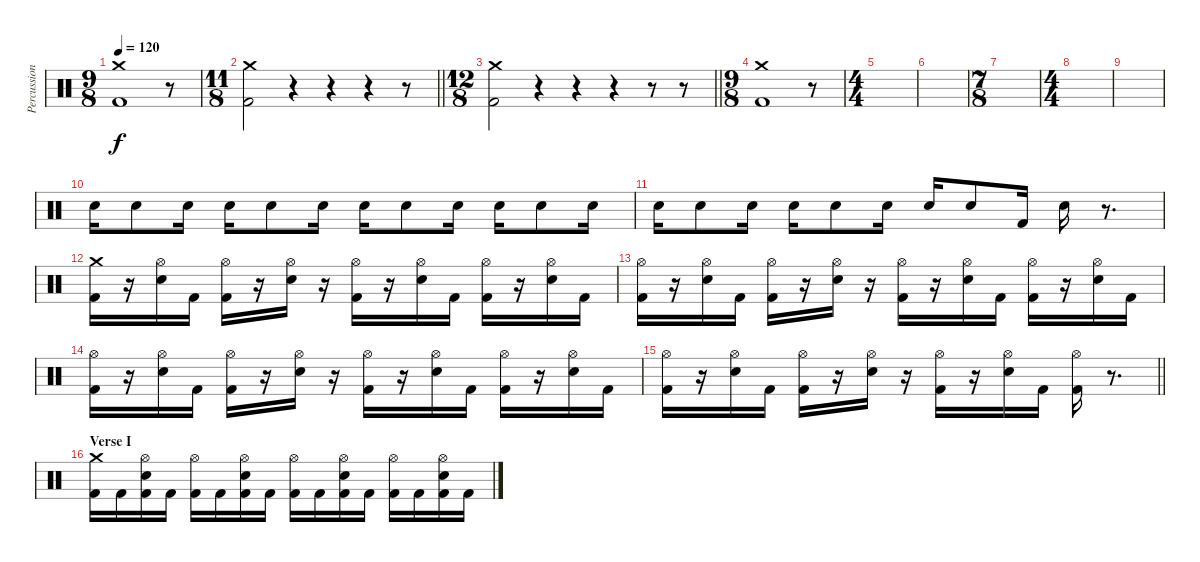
\track ("Percussion" "Percussion") {instrument percussion}
\staff {score}
\articulation defaults
\ts (9 8)
\tempo 120
\clef neutral
\ks c
("Crash medium (hit)" "Kick (hit) 2").1{dy f} r.8 |
\ts (11 8)
\barLineRight lightlight
("Crash medium (hit)" "Kick (hit) 2").2 r.4 r.4 r.4 r.8 |
\ts (12 8)
\barLineRight lightlight
("Crash medium (hit)" "Kick (hit) 2").2 r.4 r.4 r.4 r.8 r.8 |
\ts (9 8)
("Crash medium (hit)" "Kick (hit) 2").1 r.8 |
\ts (4 4)
|
|
\ts (7 8)
|
\ts (4 4)
|
|
"Electric Snare (hit)".16 "Electric Snare (hit)".8 "Electric Snare (hit)".16 "Electric Snare (hit)".16 "Electric Snare (hit)".8 "Electric Snare (hit)".16 "Electric Snare (hit)".16 "Electric Snare (hit)".8 "Electric Snare (hit)".16 "Electric Snare (hit)".16 "Electric Snare (hit)".8 "Electric Snare (hit)".16 |
"Electric Snare (hit)".16 "Electric Snare (hit)".8 "Electric Snare (hit)".16 "Electric Snare (hit)".16 "Electric Snare (hit)".8 "Electric Snare (hit)".16 "Electric Snare (hit)".16 "Electric Snare (hit)".8 "Kick (hit) 2".16 "Electric Snare (hit)".16 r.8{d} |
("Crash medium (hit)" "Kick (hit) 2").16 r.16 ("Hi-Hat (open)" "Electric Snare (hit)").16 "Kick (hit) 2".16 ("Hi-Hat (open)" "Kick (hit) 2").16 r.16 ("Hi-Hat (open)" "Electric Snare (hit)").16 r.16 ("Hi-Hat (open)" "Kick (hit) 2").16 r.16 ("Hi-Hat (open)" "Electric Snare (hit)").16 "Kick (hit) 2".16 ("Hi-Hat (open)" "Kick (hit) 2").16 r.16 ("Hi-Hat (open)" "Electric Snare (hit)").16 "Kick (hit) 2".16 |
("Hi-Hat (open)" "Kick (hit) 2").16 r.16 ("Hi-Hat (open)" "Electric Snare (hit)").16 "Kick (hit) 2".16 ("Hi-Hat (open)" "Kick (hit) 2").16 r.16 ("Hi-Hat (open)" "Electric Snare (hit)").16 r.16 ("Hi-Hat (open)" "Kick (hit) 2").16 r.16 ("Hi-Hat (open)" "Electric Snare (hit)").16 "Kick (hit) 2".16 ("Hi-Hat (open)" "Kick (hit) 2").16 r.16 ("Hi-Hat (open)" "Electric Snare (hit)").16 "Kick (hit) 2".16 |
("Hi-Hat (open)" "Kick (hit) 2").16 r.16 ("Hi-Hat (open)" "Electric Snare (hit)").16 "Kick (hit) 2".16 ("Hi-Hat (open)" "Kick (hit) 2").16 r.16 ("Hi-Hat (open)" "Electric Snare (hit)").16 r.16 ("Hi-Hat (open)" "Kick (hit) 2").16 r.16 ("Hi-Hat (open)" "Electric Snare (hit)").16 "Kick (hit) 2".16 ("Hi-Hat (open)" "Kick (hit) 2").16 r.16 ("Hi-Hat (open)" "Electric Snare (hit)").16 "Kick (hit) 2".16 |
\barLineRight lightlight
("Hi-Hat (open)" "Kick (hit) 2").16 r.16 ("Hi-Hat (open)" "Electric Snare (hit)").16 "Kick (hit) 2".16 ("Hi-Hat (open)" "Kick (hit) 2").16 r.16 ("Hi-Hat (open)" "Electric Snare (hit)").16 r.16 ("Hi-Hat (open)" "Kick (hit) 2").16 r.16 ("Hi-Hat (open)" "Electric Snare (hit)").16 "Kick (hit) 2".16 ("Hi-Hat (open)" "Kick (hit) 2").16 r.8{d} |
\section ("" "Verse I")
("Crash medium (hit)" "Kick (hit) 2").16 "Kick (hit) 2".16 ("Hi-Hat (open)" "Electric Snare (hit)" "Kick (hit) 2").16 "Kick (hit) 2".16 ("Hi-Hat (open)" "Kick (hit) 2").16 "Kick (hit) 2".16 ("Hi-Hat (open)" "Electric Snare (hit)" "Kick (hit) 2").16 "Kick (hit) 2".16 ("Hi-Hat (open)" "Kick (hit) 2").16 "Kick (hit) 2".16 ("Hi-Hat (open)" "Electric Snare (hit)" "Kick (hit) 2").16 "Kick (hit) 2".16 ("Hi-Hat (open)" "Kick (hit) 2").16 "Kick (hit) 2".16 ("Hi-Hat (open)" "Electric Snare (hit)" "Kick (hit) 2").16 "Kick (hit) 2".16
